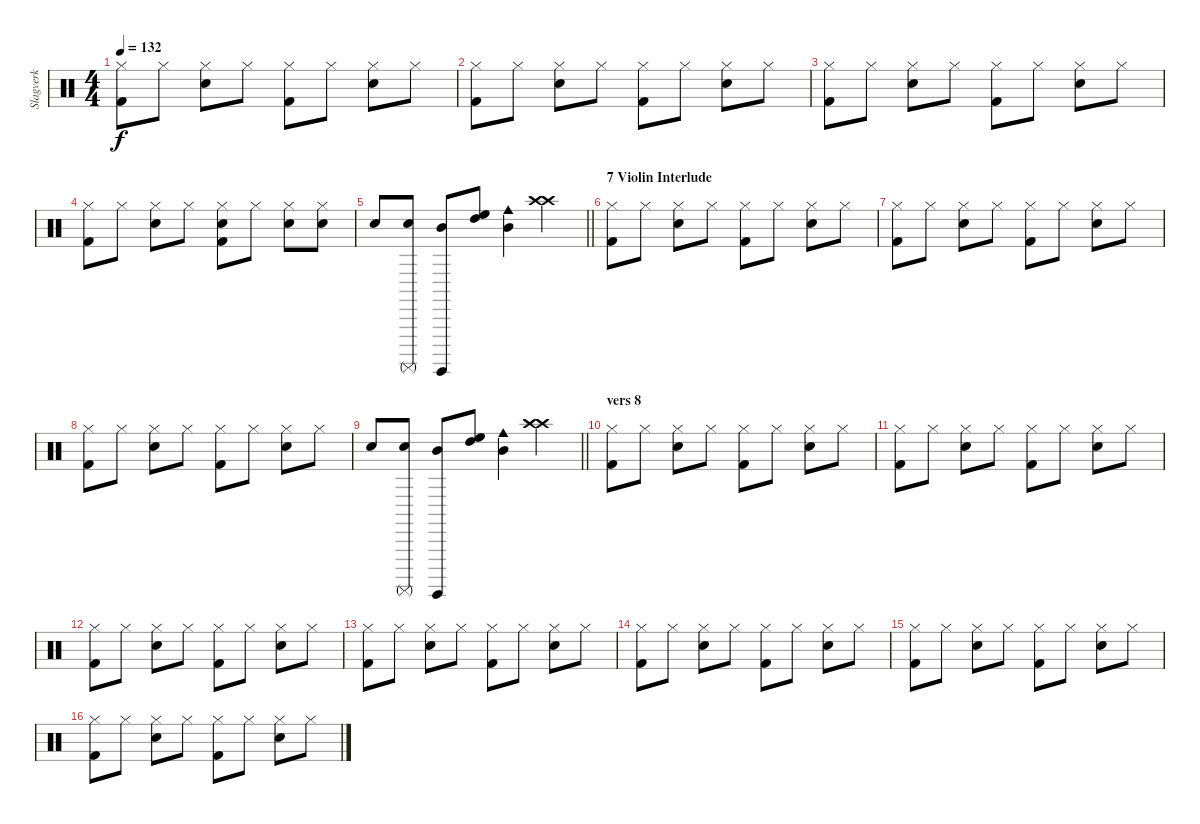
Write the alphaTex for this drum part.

\track ("Slagverk" "Slagverk") {instrument percussion}
\staff {score}
\articulation defaults
\ts (4 4)
\tempo 132
\clef neutral
\ks c
("Kick (hit) 2" "Hi-Hat (closed)").8{dy f} "Hi-Hat (closed)".8 ("Snare (hit) 2" "Hi-Hat (closed)").8 "Hi-Hat (closed)".8 ("Kick (hit) 2" "Hi-Hat (closed)").8 "Hi-Hat (closed)".8 ("Snare (hit) 2" "Hi-Hat (closed)").8 "Hi-Hat (closed)".8 |
("Kick (hit) 2" "Hi-Hat (closed)").8 "Hi-Hat (closed)".8 ("Snare (hit) 2" "Hi-Hat (closed)").8 "Hi-Hat (closed)".8 ("Kick (hit) 2" "Hi-Hat (closed)").8 "Hi-Hat (closed)".8 ("Snare (hit) 2" "Hi-Hat (closed)").8 "Hi-Hat (closed)".8 |
("Kick (hit) 2" "Hi-Hat (closed)").8 "Hi-Hat (closed)".8 ("Snare (hit) 2" "Hi-Hat (closed)").8 "Hi-Hat (closed)".8 ("Kick (hit) 2" "Hi-Hat (closed)").8 "Hi-Hat (closed)".8 ("Snare (hit) 2" "Hi-Hat (closed)").8 "Hi-Hat (closed)".8 |
("Kick (hit) 2" "Hi-Hat (closed)").8 "Hi-Hat (closed)".8 ("Snare (hit) 2" "Hi-Hat (closed)").8 "Hi-Hat (closed)".8 ("Kick (hit) 2" "Snare (hit) 2" "Hi-Hat (closed)").8 "Hi-Hat (closed)".8 ("Snare (hit) 2" "Hi-Hat (closed)").8 ("Snare (hit) 2" "Hi-Hat (closed)").8 |
\barLineRight lightlight "Snare (hit) 2".8
("Snare (hit) 2" "Surdo (mute)").8 ("Surdo (hit)" "Mid Tom (hit)").8 ("High Floor Tom (hit)" "High Tom (hit)").8 ("Cowbell medium (hit)" "Mid Tom (hit)").4 ("Crash high (hit)" "Crash high (hit)").4 |
\section ("" "7 Violin Interlude")
("Kick (hit) 2" "Hi-Hat (closed)").8 "Hi-Hat (closed)".8 ("Snare (hit) 2" "Hi-Hat (closed)").8 "Hi-Hat (closed)".8 ("Kick (hit) 2" "Hi-Hat (closed)").8 "Hi-Hat (closed)".8 ("Snare (hit) 2" "Hi-Hat (closed)").8 "Hi-Hat (closed)".8 |
("Kick (hit) 2" "Hi-Hat (closed)").8 "Hi-Hat (closed)".8 ("Snare (hit) 2" "Hi-Hat (closed)").8 "Hi-Hat (closed)".8 ("Kick (hit) 2" "Hi-Hat (closed)").8 "Hi-Hat (closed)".8 ("Snare (hit) 2" "Hi-Hat (closed)").8 "Hi-Hat (closed)".8 |
("Kick (hit) 2" "Hi-Hat (closed)").8 "Hi-Hat (closed)".8 ("Snare (hit) 2" "Hi-Hat (closed)").8 "Hi-Hat (closed)".8 ("Kick (hit) 2" "Hi-Hat (closed)").8 "Hi-Hat (closed)".8 ("Snare (hit) 2" "Hi-Hat (closed)").8 "Hi-Hat (closed)".8 |
\barLineRight lightlight "Snare (hit) 2".8
("Snare (hit) 2" "Surdo (mute)").8 ("Surdo (hit)" "Mid Tom (hit)").8 ("High Floor Tom (hit)" "High Tom (hit)").8 ("Cowbell medium (hit)" "Mid Tom (hit)").4 ("Crash high (hit)" "Crash high (hit)").4 |
\section ("" "vers 8")
("Kick (hit) 2" "Hi-Hat (closed)").8 "Hi-Hat (closed)".8 ("Snare (hit) 2" "Hi-Hat (closed)").8 "Hi-Hat (closed)".8 ("Kick (hit) 2" "Hi-Hat (closed)").8 "Hi-Hat (closed)".8 ("Snare (hit) 2" "Hi-Hat (closed)").8 "Hi-Hat (closed)".8 |
("Kick (hit) 2" "Hi-Hat (closed)").8 "Hi-Hat (closed)".8 ("Snare (hit) 2" "Hi-Hat (closed)").8 "Hi-Hat (closed)".8 ("Kick (hit) 2" "Hi-Hat (closed)").8 "Hi-Hat (closed)".8 ("Snare (hit) 2" "Hi-Hat (closed)").8 "Hi-Hat (closed)".8 |
("Kick (hit) 2" "Hi-Hat (closed)").8 "Hi-Hat (closed)".8 ("Snare (hit) 2" "Hi-Hat (closed)").8 "Hi-Hat (closed)".8 ("Kick (hit) 2" "Hi-Hat (closed)").8 "Hi-Hat (closed)".8 ("Snare (hit) 2" "Hi-Hat (closed)").8 "Hi-Hat (closed)".8 |
("Kick (hit) 2" "Hi-Hat (closed)").8 "Hi-Hat (closed)".8 ("Snare (hit) 2" "Hi-Hat (closed)").8 "Hi-Hat (closed)".8 ("Kick (hit) 2" "Hi-Hat (closed)").8 "Hi-Hat (closed)".8 ("Snare (hit) 2" "Hi-Hat (closed)").8 "Hi-Hat (closed)".8 |
("Kick (hit) 2" "Hi-Hat (closed)").8 "Hi-Hat (closed)".8 ("Snare (hit) 2" "Hi-Hat (closed)").8 "Hi-Hat (closed)".8 ("Kick (hit) 2" "Hi-Hat (closed)").8 "Hi-Hat (closed)".8 ("Snare (hit) 2" "Hi-Hat (closed)").8 "Hi-Hat (closed)".8 |
("Kick (hit) 2" "Hi-Hat (closed)").8 "Hi-Hat (closed)".8 ("Snare (hit) 2" "Hi-Hat (closed)").8 "Hi-Hat (closed)".8 ("Kick (hit) 2" "Hi-Hat (closed)").8 "Hi-Hat (closed)".8 ("Snare (hit) 2" "Hi-Hat (closed)").8 "Hi-Hat (closed)".8 |
("Kick (hit) 2" "Hi-Hat (closed)").8 "Hi-Hat (closed)".8 ("Snare (hit) 2" "Hi-Hat (closed)").8 "Hi-Hat (closed)".8 ("Kick (hit) 2" "Hi-Hat (closed)").8 "Hi-Hat (closed)".8 ("Snare (hit) 2" "Hi-Hat (closed)").8 "Hi-Hat (closed)".8
